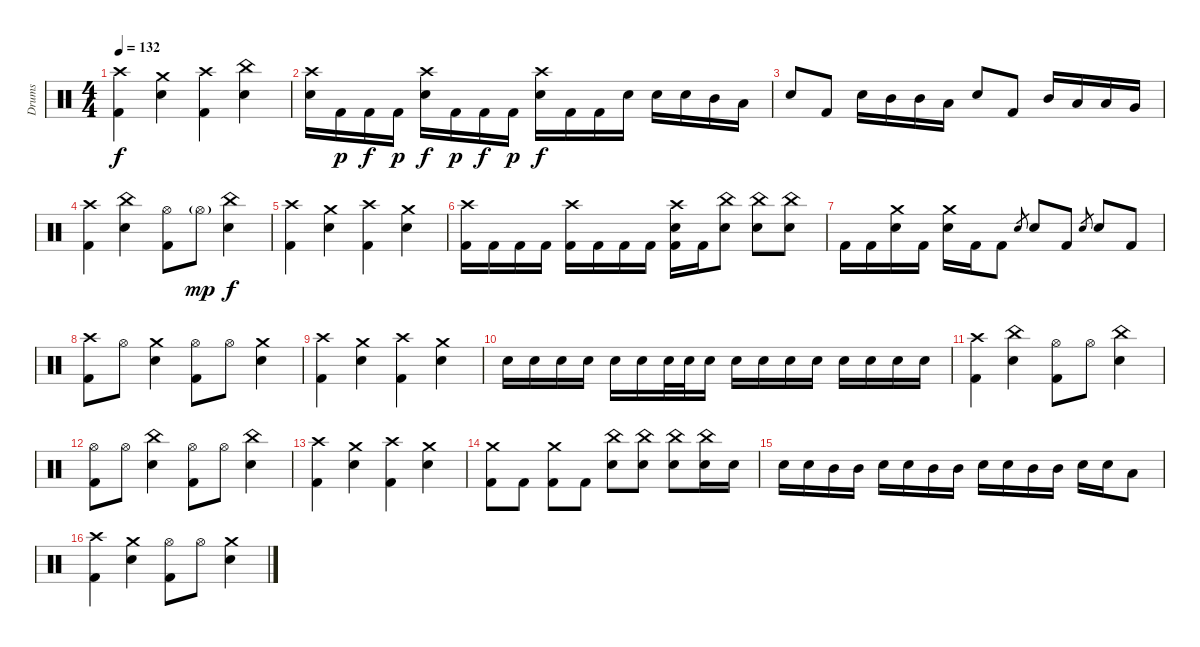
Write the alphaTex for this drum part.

\track ("Drums" "Drums") {instrument percussion}
\staff {score}
\articulation defaults
\ts (4 4)
\tempo 132
\clef neutral
\ks c
("Crash high (hit)" "Kick (hit) 2").4{dy f} ("Crash medium (hit)" "Snare (hit) 2").4 ("Crash high (hit)" "Kick (hit) 2").4 ("China (hit)" "Snare (hit) 2").4 |
("Crash high (hit)" "Snare (hit) 2").16 "Kick (hit) 2".16{dy p} "Kick (hit) 2".16{dy f} "Kick (hit) 2".16{dy p} ("Crash high (hit)" "Snare (hit) 2").16{dy f} "Kick (hit) 2".16{dy p} "Kick (hit) 2".16{dy f} "Kick (hit) 2".16{dy p} ("Crash high (hit)" "Snare (hit) 2").16{dy f} "Kick (hit) 2".16 "Kick (hit) 2".16 "Snare (hit) 2".16 "Snare (hit) 2".16 "Snare (hit) 2".16 "Mid Tom (hit)".16 "Low Tom (hit)".16 |
"Snare (hit) 2".8 "Kick (hit) 2".8 "Snare (hit) 2".16 "Mid Tom (hit)".16 "Mid Tom (hit)".16 "Low Tom (hit)".16 "Snare (hit) 2".8 "Kick (hit) 2".8 "Mid Tom (hit)".16 "Low Tom (hit)".16 "Low Tom (hit)".16 "Very Low Tom (hit)".16 |
("Crash high (hit)" "Kick (hit) 2").4 ("China (hit)" "Snare (hit) 2").4 ("Hi-Hat (open)" "Kick (hit) 2").8 "Hi-Hat (open)"{g}.8{dy mp} ("China (hit)" "Snare (hit) 2").4{dy f} |
("Crash high (hit)" "Kick (hit) 2").4 ("Crash medium (hit)" "Snare (hit) 2").4 ("Crash high (hit)" "Kick (hit) 2").4 ("Crash medium (hit)" "Snare (hit) 2").4 |
("Crash high (hit)" "Kick (hit) 2").16{volume 10} "Kick (hit) 2".16 "Kick (hit) 2".16 "Kick (hit) 2".16 ("Crash high (hit)" "Kick (hit) 2").16 "Kick (hit) 2".16 "Kick (hit) 2".16 "Kick (hit) 2".16 ("Crash high (hit)" "Snare (hit) 2" "Kick (hit) 2").16 "Kick (hit) 2".16 ("China (hit)" "Snare (hit) 2").8 ("China (hit)" "Snare (hit) 2").8 ("China (hit)" "Snare (hit) 2").8 |
"Kick (hit) 2".16 "Kick (hit) 2".16 ("Crash medium (hit)" "Snare (hit) 2").16 "Kick (hit) 2".16 ("Crash medium (hit)" "Snare (hit) 2").16 "Kick (hit) 2".16 "Kick (hit) 2".8 "Snare (hit) 2".8{gr} "Snare (hit) 2".8 "Kick (hit) 2".8 "Snare (hit) 2".8{gr} "Snare (hit) 2".8 "Kick (hit) 2".8 |
("Crash high (hit)" "Kick (hit) 2").8 "Hi-Hat (open)".8 ("Crash medium (hit)" "Snare (hit) 2").4 ("Hi-Hat (open)" "Kick (hit) 2").8 "Hi-Hat (open)".8 ("Crash medium (hit)" "Snare (hit) 2").4 |
("Crash high (hit)" "Kick (hit) 2").4 ("Crash medium (hit)" "Snare (hit) 2").4 ("Crash high (hit)" "Kick (hit) 2").4 ("Crash medium (hit)" "Snare (hit) 2").4 |
"Snare (hit) 2".16{volume 5} "Snare (hit) 2".16 "Snare (hit) 2".16 "Snare (hit) 2".16 "Snare (hit) 2".16 "Snare (hit) 2".16 "Snare (hit) 2".32 "Snare (hit) 2".32 "Snare (hit) 2".16 "Snare (hit) 2".16 "Snare (hit) 2".16 "Snare (hit) 2".16 "Snare (hit) 2".16 "Snare (hit) 2".16 "Snare (hit) 2".16 "Snare (hit) 2".16 "Snare (hit) 2".16 |
("Crash high (hit)" "Kick (hit) 2").4 ("China (hit)" "Snare (hit) 2").4 ("Hi-Hat (open)" "Kick (hit) 2").8 "Hi-Hat (open)".8 ("China (hit)" "Snare (hit) 2").4 |
("Hi-Hat (open)" "Kick (hit) 2").8 "Hi-Hat (open)".8 ("China (hit)" "Snare (hit) 2").4 ("Hi-Hat (open)" "Kick (hit) 2").8 "Hi-Hat (open)".8 ("China (hit)" "Snare (hit) 2").4 |
("Crash high (hit)" "Kick (hit) 2").4 ("Crash medium (hit)" "Snare (hit) 2").4 ("Crash high (hit)" "Kick (hit) 2").4 ("Crash medium (hit)" "Snare (hit) 2").4 |
("Crash medium (hit)" "Kick (hit) 2").8{volume 4} "Kick (hit) 2".8 ("Crash medium (hit)" "Kick (hit) 2").8 "Kick (hit) 2".8 ("China (hit)" "Snare (hit) 2").8 ("China (hit)" "Snare (hit) 2").8 ("China (hit)" "Snare (hit) 2").8 ("China (hit)" "Snare (hit) 2").16 "Snare (hit) 2".16 |
"Snare (hit) 2".16 "Snare (hit) 2".16 "Mid Tom (hit)".16 "Mid Tom (hit)".16 "Snare (hit) 2".16 "Snare (hit) 2".16 "Mid Tom (hit)".16 "Mid Tom (hit)".16 "Snare (hit) 2".16 "Snare (hit) 2".16 "Mid Tom (hit)".16 "Mid Tom (hit)".16 "Snare (hit) 2".16 "Snare (hit) 2".16 "Low Tom (hit)".8 |
("Crash high (hit)" "Kick (hit) 2").4 ("Crash medium (hit)" "Snare (hit) 2").4 ("Hi-Hat (open)" "Kick (hit) 2").8 "Hi-Hat (open)".8 ("Crash medium (hit)" "Snare (hit) 2").4
